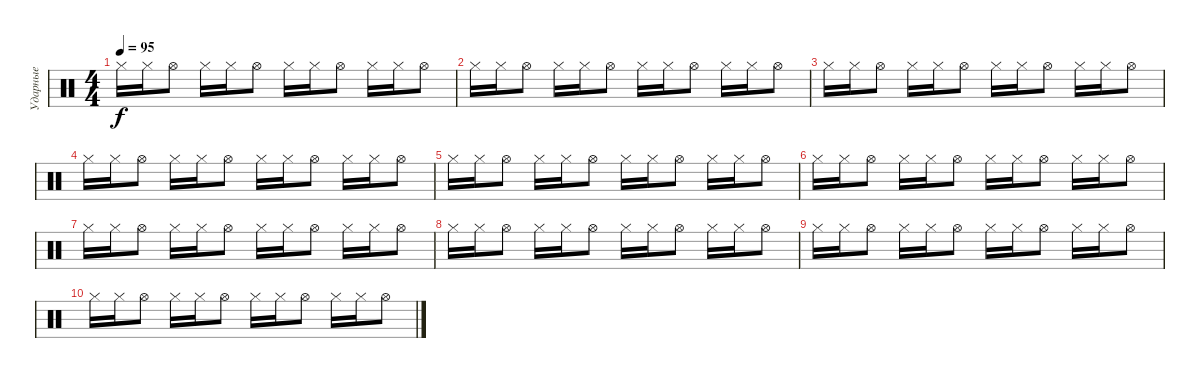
\track ("Ударные" "Ударные") {instrument percussion}
\staff {score}
\articulation defaults
\ts (4 4)
\tempo 95
\clef neutral
\ks c "Hi-Hat (closed)".16{dy f} "Hi-Hat (closed)".16 "Hi-Hat (open)".8 "Hi-Hat (closed)".16 "Hi-Hat (closed)".16 "Hi-Hat (open)".8 "Hi-Hat (closed)".16 "Hi-Hat (closed)".16 "Hi-Hat (open)".8 "Hi-Hat (closed)".16 "Hi-Hat (closed)".16 "Hi-Hat (open)".8
|
"Hi-Hat (closed)".16 "Hi-Hat (closed)".16 "Hi-Hat (open)".8 "Hi-Hat (closed)".16 "Hi-Hat (closed)".16 "Hi-Hat (open)".8 "Hi-Hat (closed)".16 "Hi-Hat (closed)".16 "Hi-Hat (open)".8 "Hi-Hat (closed)".16 "Hi-Hat (closed)".16 "Hi-Hat (open)".8 |
"Hi-Hat (closed)".16 "Hi-Hat (closed)".16 "Hi-Hat (open)".8 "Hi-Hat (closed)".16 "Hi-Hat (closed)".16 "Hi-Hat (open)".8 "Hi-Hat (closed)".16 "Hi-Hat (closed)".16 "Hi-Hat (open)".8 "Hi-Hat (closed)".16 "Hi-Hat (closed)".16 "Hi-Hat (open)".8 |
"Hi-Hat (closed)".16 "Hi-Hat (closed)".16 "Hi-Hat (open)".8 "Hi-Hat (closed)".16 "Hi-Hat (closed)".16 "Hi-Hat (open)".8 "Hi-Hat (closed)".16 "Hi-Hat (closed)".16 "Hi-Hat (open)".8 "Hi-Hat (closed)".16 "Hi-Hat (closed)".16 "Hi-Hat (open)".8 |
"Hi-Hat (closed)".16 "Hi-Hat (closed)".16 "Hi-Hat (open)".8 "Hi-Hat (closed)".16 "Hi-Hat (closed)".16 "Hi-Hat (open)".8 "Hi-Hat (closed)".16 "Hi-Hat (closed)".16 "Hi-Hat (open)".8 "Hi-Hat (closed)".16 "Hi-Hat (closed)".16 "Hi-Hat (open)".8 |
"Hi-Hat (closed)".16 "Hi-Hat (closed)".16 "Hi-Hat (open)".8 "Hi-Hat (closed)".16 "Hi-Hat (closed)".16 "Hi-Hat (open)".8 "Hi-Hat (closed)".16 "Hi-Hat (closed)".16 "Hi-Hat (open)".8 "Hi-Hat (closed)".16 "Hi-Hat (closed)".16 "Hi-Hat (open)".8 |
"Hi-Hat (closed)".16 "Hi-Hat (closed)".16 "Hi-Hat (open)".8 "Hi-Hat (closed)".16 "Hi-Hat (closed)".16 "Hi-Hat (open)".8 "Hi-Hat (closed)".16 "Hi-Hat (closed)".16 "Hi-Hat (open)".8 "Hi-Hat (closed)".16 "Hi-Hat (closed)".16 "Hi-Hat (open)".8 |
"Hi-Hat (closed)".16 "Hi-Hat (closed)".16 "Hi-Hat (open)".8 "Hi-Hat (closed)".16 "Hi-Hat (closed)".16 "Hi-Hat (open)".8 "Hi-Hat (closed)".16 "Hi-Hat (closed)".16 "Hi-Hat (open)".8 "Hi-Hat (closed)".16 "Hi-Hat (closed)".16 "Hi-Hat (open)".8 |
"Hi-Hat (closed)".16 "Hi-Hat (closed)".16 "Hi-Hat (open)".8 "Hi-Hat (closed)".16 "Hi-Hat (closed)".16 "Hi-Hat (open)".8 "Hi-Hat (closed)".16 "Hi-Hat (closed)".16 "Hi-Hat (open)".8 "Hi-Hat (closed)".16 "Hi-Hat (closed)".16 "Hi-Hat (open)".8 |
"Hi-Hat (closed)".16 "Hi-Hat (closed)".16 "Hi-Hat (open)".8 "Hi-Hat (closed)".16 "Hi-Hat (closed)".16 "Hi-Hat (open)".8 "Hi-Hat (closed)".16 "Hi-Hat (closed)".16 "Hi-Hat (open)".8 "Hi-Hat (closed)".16 "Hi-Hat (closed)".16 "Hi-Hat (open)".8
